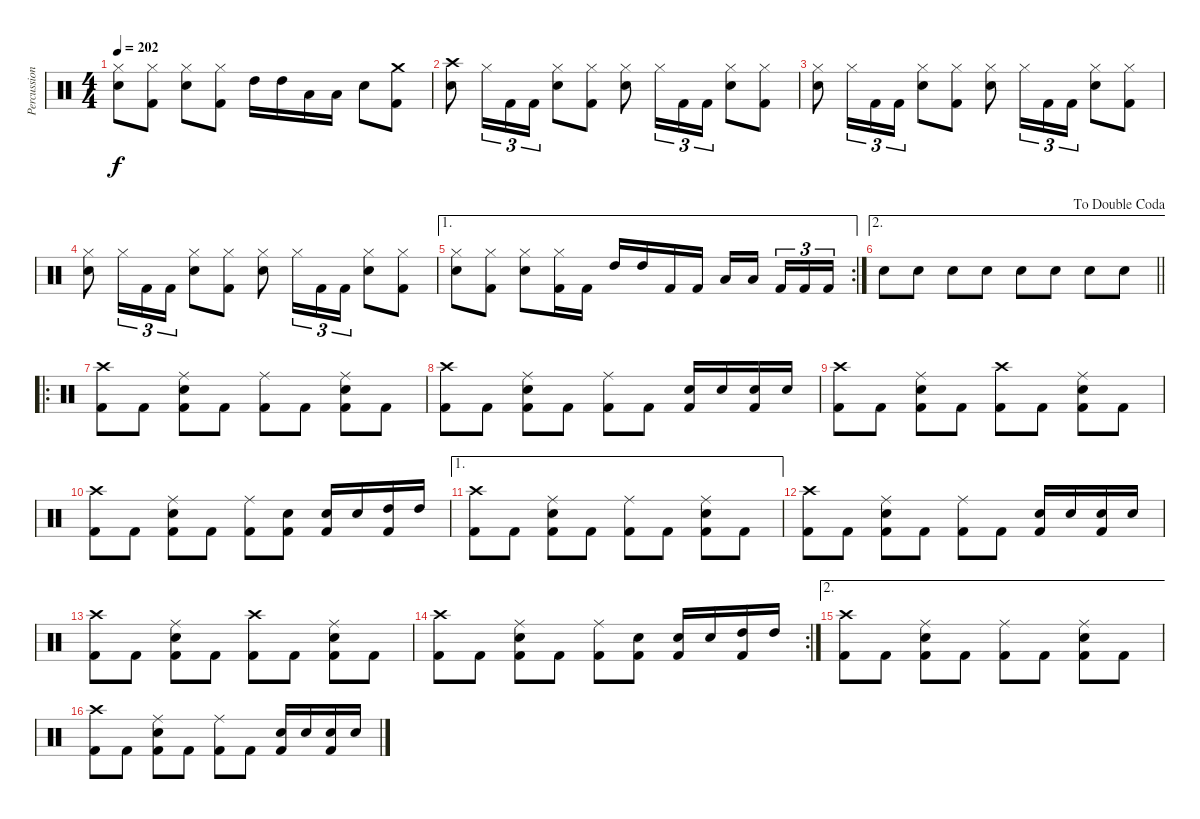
\track ("Percussion" "Percussion") {instrument percussion}
\staff {score}
\articulation defaults
\ts (4 4)
\tempo 202
\clef neutral
\ks c
("Hi-Hat (closed)" "Electric Snare (hit)").8{dy f} ("Hi-Hat (closed)" "Kick (hit) 2").8 ("Hi-Hat (closed)" "Electric Snare (hit)").8 ("Hi-Hat (closed)" "Kick (hit) 2").8 "High Tom (hit)".16 "High Tom (hit)".16 "Low Tom (hit)".16 "Low Tom (hit)".16 "Electric Snare (hit)".8 ("Crash medium (hit)" "Kick (hit) 2").8 |
("Crash high (hit)" "Electric Snare (hit)").8 "Hi-Hat (closed)".16{tu (3 2)} "Kick (hit) 2".16{tu (3 2)} "Kick (hit) 2".16{tu (3 2)} ("Hi-Hat (closed)" "Electric Snare (hit)").8 ("Hi-Hat (closed)" "Kick (hit) 2").8 ("Hi-Hat (closed)" "Electric Snare (hit)").8 "Hi-Hat (closed)".16{tu (3 2)} "Kick (hit) 2".16{tu (3 2)} "Kick (hit) 2".16{tu (3 2)} ("Hi-Hat (closed)" "Electric Snare (hit)").8 ("Hi-Hat (closed)" "Kick (hit) 2").8 |
("Hi-Hat (closed)" "Electric Snare (hit)").8 "Hi-Hat (closed)".16{tu (3 2)} "Kick (hit) 2".16{tu (3 2)} "Kick (hit) 2".16{tu (3 2)} ("Hi-Hat (closed)" "Electric Snare (hit)").8 ("Hi-Hat (closed)" "Kick (hit) 2").8 ("Hi-Hat (closed)" "Electric Snare (hit)").8 "Hi-Hat (closed)".16{tu (3 2)} "Kick (hit) 2".16{tu (3 2)} "Kick (hit) 2".16{tu (3 2)} ("Hi-Hat (closed)" "Electric Snare (hit)").8 ("Hi-Hat (closed)" "Kick (hit) 2").8 |
("Hi-Hat (closed)" "Electric Snare (hit)").8 "Hi-Hat (closed)".16{tu (3 2)} "Kick (hit) 2".16{tu (3 2)} "Kick (hit) 2".16{tu (3 2)} ("Hi-Hat (closed)" "Electric Snare (hit)").8 ("Hi-Hat (closed)" "Kick (hit) 2").8 ("Hi-Hat (closed)" "Electric Snare (hit)").8 "Hi-Hat (closed)".16{tu (3 2)} "Kick (hit) 2".16{tu (3 2)} "Kick (hit) 2".16{tu (3 2)} ("Hi-Hat (closed)" "Electric Snare (hit)").8 ("Hi-Hat (closed)" "Kick (hit) 2").8 |
\ae 1
\rc 2
("Hi-Hat (closed)" "Electric Snare (hit)").8 ("Hi-Hat (closed)" "Kick (hit) 2").8 ("Hi-Hat (closed)" "Electric Snare (hit)").8 ("Hi-Hat (closed)" "Kick (hit) 2").16 "Kick (hit) 2".16 "High Tom (hit)".16 "High Tom (hit)".16 "Kick (hit) 2".16 "Kick (hit) 2".16 "Low Tom (hit)".16 "Low Tom (hit)".16{beam splitsecondary} "Kick (hit) 2".16{tu (3 2)} "Kick (hit) 2".16{tu (3 2)} "Kick (hit) 2".16{tu (3 2)} |
\ae 2
\jump dadoublecoda
\barLineRight lightlight "Electric Snare (hit)".8 "Electric Snare (hit)".8 "Electric Snare (hit)".8 "Electric Snare (hit)".8 "Electric Snare (hit)".8 "Electric Snare (hit)".8 "Electric Snare (hit)".8 "Electric Snare (hit)".8
|
\ro
("Crash high (hit)" "Kick (hit) 2").8 "Kick (hit) 2".8 ("Ride (middle)" "Electric Snare (hit)" "Kick (hit) 2").8 "Kick (hit) 2".8 ("Ride (middle)" "Kick (hit) 2").8 "Kick (hit) 2".8 ("Ride (middle)" "Electric Snare (hit)" "Kick (hit) 2").8 "Kick (hit) 2".8 |
("Crash high (hit)" "Kick (hit) 2").8 "Kick (hit) 2".8 ("Ride (middle)" "Electric Snare (hit)" "Kick (hit) 2").8 "Kick (hit) 2".8 ("Ride (middle)" "Kick (hit) 2").8 "Kick (hit) 2".8 ("Electric Snare (hit)" "Kick (hit) 2").16 "Electric Snare (hit)".16 ("Electric Snare (hit)" "Kick (hit) 2").16 "Electric Snare (hit)".16 |
("Crash high (hit)" "Kick (hit) 2").8 "Kick (hit) 2".8 ("Ride (middle)" "Electric Snare (hit)" "Kick (hit) 2").8 "Kick (hit) 2".8 ("Crash high (hit)" "Kick (hit) 2").8 "Kick (hit) 2".8 ("Ride (middle)" "Electric Snare (hit)" "Kick (hit) 2").8 "Kick (hit) 2".8 |
("Crash high (hit)" "Kick (hit) 2").8 "Kick (hit) 2".8 ("Ride (middle)" "Electric Snare (hit)" "Kick (hit) 2").8 "Kick (hit) 2".8 ("Ride (middle)" "Kick (hit) 2").8 ("Electric Snare (hit)" "Kick (hit) 2").8 ("Electric Snare (hit)" "Kick (hit) 2").16 "Electric Snare (hit)".16 ("High Tom (hit)" "Kick (hit) 2").16 "High Tom (hit)".16 |
\ae 1
("Crash high (hit)" "Kick (hit) 2").8 "Kick (hit) 2".8 ("Ride (middle)" "Electric Snare (hit)" "Kick (hit) 2").8 "Kick (hit) 2".8 ("Ride (middle)" "Kick (hit) 2").8 "Kick (hit) 2".8 ("Ride (middle)" "Electric Snare (hit)" "Kick (hit) 2").8 "Kick (hit) 2".8 |
("Crash high (hit)" "Kick (hit) 2").8 "Kick (hit) 2".8 ("Ride (middle)" "Electric Snare (hit)" "Kick (hit) 2").8 "Kick (hit) 2".8 ("Ride (middle)" "Kick (hit) 2").8 "Kick (hit) 2".8 ("Electric Snare (hit)" "Kick (hit) 2").16 "Electric Snare (hit)".16 ("Electric Snare (hit)" "Kick (hit) 2").16 "Electric Snare (hit)".16 |
("Crash high (hit)" "Kick (hit) 2").8 "Kick (hit) 2".8 ("Ride (middle)" "Electric Snare (hit)" "Kick (hit) 2").8 "Kick (hit) 2".8 ("Crash high (hit)" "Kick (hit) 2").8 "Kick (hit) 2".8 ("Ride (middle)" "Electric Snare (hit)" "Kick (hit) 2").8 "Kick (hit) 2".8 |
\rc 2
("Crash high (hit)" "Kick (hit) 2").8 "Kick (hit) 2".8 ("Ride (middle)" "Electric Snare (hit)" "Kick (hit) 2").8 "Kick (hit) 2".8 ("Ride (middle)" "Kick (hit) 2").8 ("Electric Snare (hit)" "Kick (hit) 2").8 ("Electric Snare (hit)" "Kick (hit) 2").16 "Electric Snare (hit)".16 ("High Tom (hit)" "Kick (hit) 2").16 "High Tom (hit)".16 |
\ae 2
("Crash high (hit)" "Kick (hit) 2").8 "Kick (hit) 2".8 ("Ride (middle)" "Electric Snare (hit)" "Kick (hit) 2").8 "Kick (hit) 2".8 ("Ride (middle)" "Kick (hit) 2").8 "Kick (hit) 2".8 ("Ride (middle)" "Electric Snare (hit)" "Kick (hit) 2").8 "Kick (hit) 2".8 |
("Crash high (hit)" "Kick (hit) 2").8 "Kick (hit) 2".8 ("Ride (middle)" "Electric Snare (hit)" "Kick (hit) 2").8 "Kick (hit) 2".8 ("Ride (middle)" "Kick (hit) 2").8 "Kick (hit) 2".8 ("Electric Snare (hit)" "Kick (hit) 2").16 "Electric Snare (hit)".16 ("Electric Snare (hit)" "Kick (hit) 2").16 "Electric Snare (hit)".16
